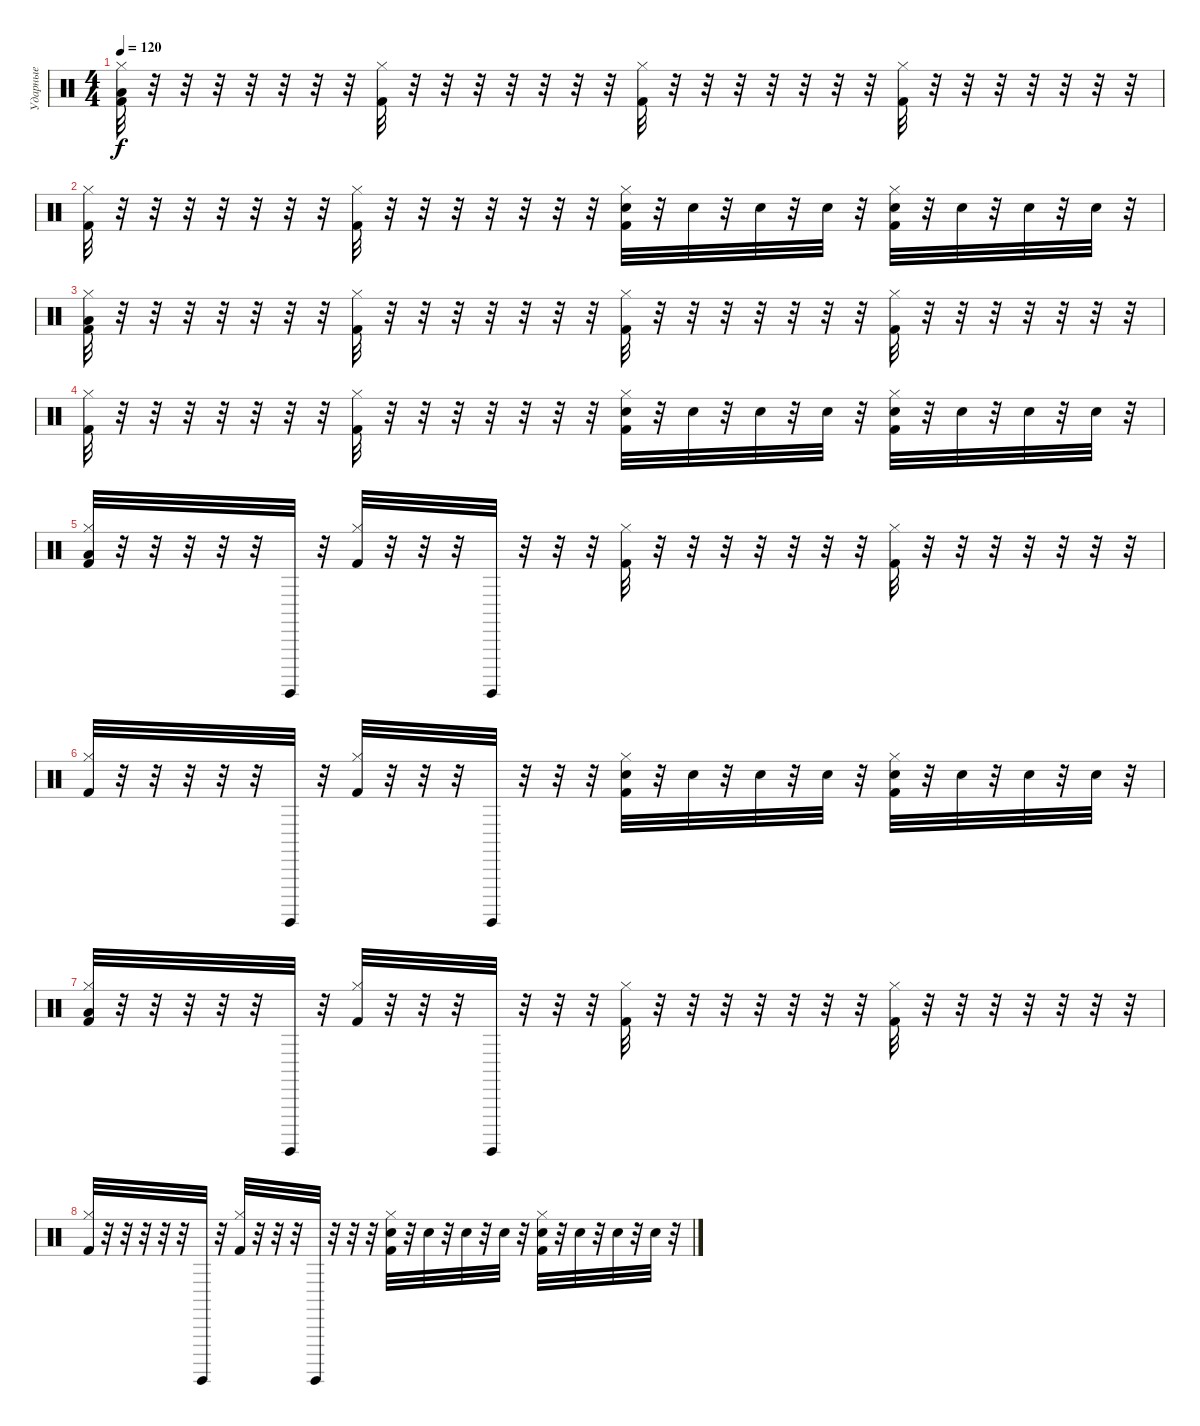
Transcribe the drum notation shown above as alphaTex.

\track ("Ударные" "Ударные") {instrument percussion}
\staff {score}
\articulation defaults
\ts (4 4)
\tempo 120
\clef neutral
\ks c
("Hi-Hat (closed)" "Kick (hit) 2" "Low Floor Tom (hit)").32{dy f} r.32 r.32 r.32 r.32 r.32 r.32 r.32 ("Hi-Hat (closed)" "Kick (hit) 2").32 r.32 r.32 r.32 r.32 r.32 r.32 r.32 ("Hi-Hat (closed)" "Kick (hit) 2").32 r.32 r.32 r.32 r.32 r.32 r.32 r.32 ("Kick (hit) 2" "Hi-Hat (closed)").32 r.32 r.32 r.32 r.32 r.32 r.32 r.32 |
("Hi-Hat (closed)" "Kick (hit) 2").32 r.32 r.32 r.32 r.32 r.32 r.32 r.32 ("Hi-Hat (closed)" "Kick (hit) 2").32 r.32 r.32 r.32 r.32 r.32 r.32 r.32 ("Hi-Hat (closed)" "Kick (hit) 2" "Snare (hit) 2").32 r.32 "Snare (hit) 2".32 r.32 "Snare (hit) 2".32 r.32 "Snare (hit) 2".32 r.32 ("Snare (hit) 2" "Kick (hit) 2" "Hi-Hat (closed)").32 r.32 "Snare (hit) 2".32 r.32 "Snare (hit) 2".32 r.32 "Snare (hit) 2".32 r.32 |
("Hi-Hat (closed)" "Kick (hit) 2" "Low Floor Tom (hit)").32 r.32 r.32 r.32 r.32 r.32 r.32 r.32 ("Hi-Hat (closed)" "Kick (hit) 2").32 r.32 r.32 r.32 r.32 r.32 r.32 r.32 ("Hi-Hat (closed)" "Kick (hit) 2").32 r.32 r.32 r.32 r.32 r.32 r.32 r.32 ("Kick (hit) 2" "Hi-Hat (closed)").32 r.32 r.32 r.32 r.32 r.32 r.32 r.32 |
("Hi-Hat (closed)" "Kick (hit) 2").32 r.32 r.32 r.32 r.32 r.32 r.32 r.32 ("Hi-Hat (closed)" "Kick (hit) 2").32 r.32 r.32 r.32 r.32 r.32 r.32 r.32 ("Hi-Hat (closed)" "Kick (hit) 2" "Snare (hit) 2").32 r.32 "Snare (hit) 2".32 r.32 "Snare (hit) 2".32 r.32 "Snare (hit) 2".32 r.32 ("Snare (hit) 2" "Kick (hit) 2" "Hi-Hat (closed)").32 r.32 "Snare (hit) 2".32 r.32 "Snare (hit) 2".32 r.32 "Snare (hit) 2".32 r.32 |
("Hi-Hat (closed)" "Kick (hit) 2" "Low Floor Tom (hit)").32 r.32 r.32 r.32 r.32 r.32 "Surdo (hit)".32 r.32 ("Hi-Hat (closed)" "Kick (hit) 2").32 r.32 r.32 r.32 "Surdo (hit)".32 r.32 r.32 r.32 ("Hi-Hat (closed)" "Kick (hit) 2").32 r.32 r.32 r.32 r.32 r.32 r.32 r.32 ("Kick (hit) 2" "Hi-Hat (closed)").32 r.32 r.32 r.32 r.32 r.32 r.32 r.32 |
("Hi-Hat (closed)" "Kick (hit) 2").32 r.32 r.32 r.32 r.32 r.32 "Surdo (hit)".32 r.32 ("Hi-Hat (closed)" "Kick (hit) 2").32 r.32 r.32 r.32 "Surdo (hit)".32 r.32 r.32 r.32 ("Hi-Hat (closed)" "Kick (hit) 2" "Snare (hit) 2").32 r.32 "Snare (hit) 2".32 r.32 "Snare (hit) 2".32 r.32 "Snare (hit) 2".32 r.32 ("Snare (hit) 2" "Kick (hit) 2" "Hi-Hat (closed)").32 r.32 "Snare (hit) 2".32 r.32 "Snare (hit) 2".32 r.32 "Snare (hit) 2".32 r.32 |
("Hi-Hat (closed)" "Kick (hit) 2" "Low Floor Tom (hit)").32 r.32 r.32 r.32 r.32 r.32 "Surdo (hit)".32 r.32 ("Hi-Hat (closed)" "Kick (hit) 2").32 r.32 r.32 r.32 "Surdo (hit)".32 r.32 r.32 r.32 ("Hi-Hat (closed)" "Kick (hit) 2").32 r.32 r.32 r.32 r.32 r.32 r.32 r.32 ("Kick (hit) 2" "Hi-Hat (closed)").32 r.32 r.32 r.32 r.32 r.32 r.32 r.32 |
("Hi-Hat (closed)" "Kick (hit) 2").32 r.32 r.32 r.32 r.32 r.32 "Surdo (hit)".32 r.32 ("Hi-Hat (closed)" "Kick (hit) 2").32 r.32 r.32 r.32 "Surdo (hit)".32 r.32 r.32 r.32 ("Hi-Hat (closed)" "Kick (hit) 2" "Snare (hit) 2").32 r.32 "Snare (hit) 2".32 r.32 "Snare (hit) 2".32 r.32 "Snare (hit) 2".32 r.32 ("Snare (hit) 2" "Kick (hit) 2" "Hi-Hat (closed)").32 r.32 "Snare (hit) 2".32 r.32 "Snare (hit) 2".32 r.32 "Snare (hit) 2".32 r.32
